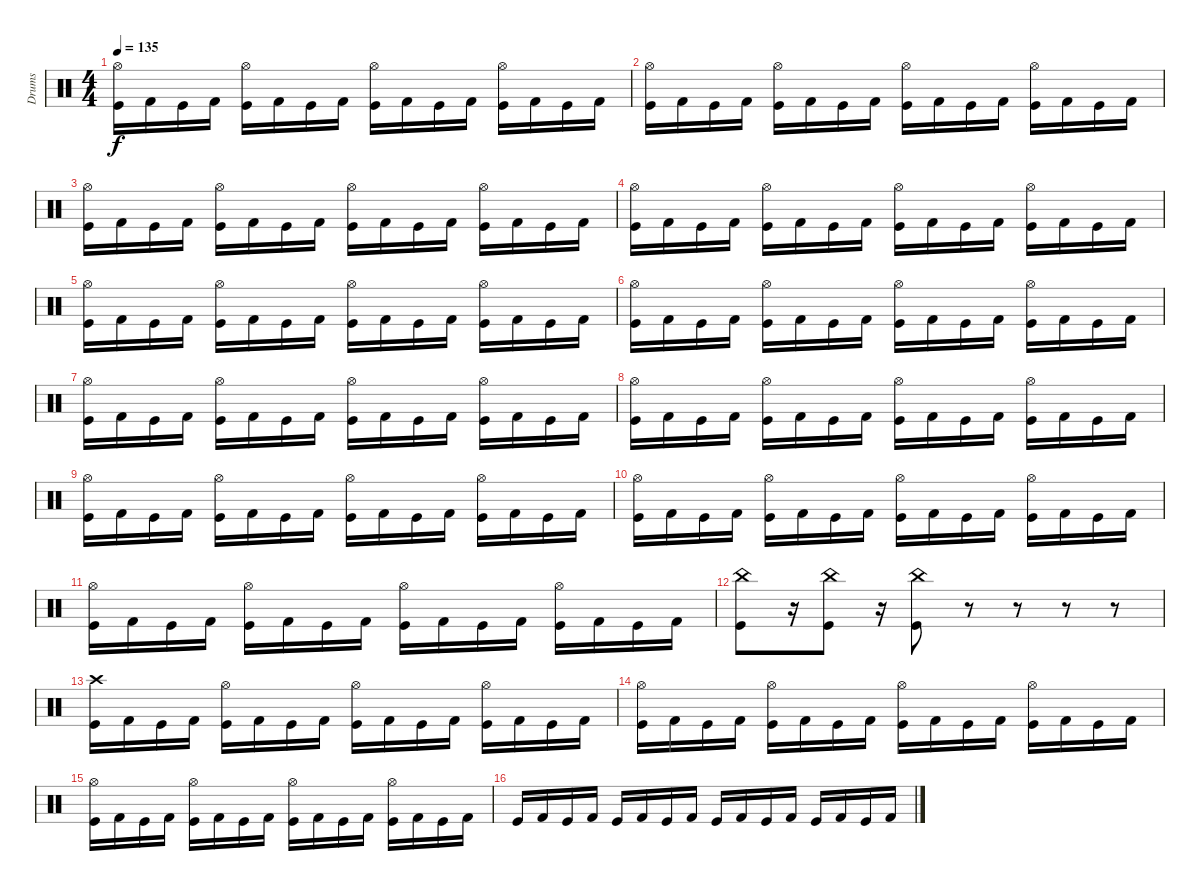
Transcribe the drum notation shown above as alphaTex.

\track ("Drums" "Drums") {instrument percussion}
\staff {score}
\articulation defaults
\ts (4 4)
\tempo 135
\clef neutral
\ks c
("Kick (hit)" "Hi-Hat (open)").16{dy f} "Kick (hit) 2".16 "Kick (hit)".16 "Kick (hit) 2".16 ("Kick (hit)" "Hi-Hat (open)").16 "Kick (hit) 2".16 "Kick (hit)".16 "Kick (hit) 2".16 ("Kick (hit)" "Hi-Hat (open)").16 "Kick (hit) 2".16 "Kick (hit)".16 "Kick (hit) 2".16 ("Kick (hit)" "Hi-Hat (open)").16 "Kick (hit) 2".16 "Kick (hit)".16 "Kick (hit) 2".16 |
("Kick (hit)" "Hi-Hat (open)").16 "Kick (hit) 2".16 "Kick (hit)".16 "Kick (hit) 2".16 ("Kick (hit)" "Hi-Hat (open)").16 "Kick (hit) 2".16 "Kick (hit)".16 "Kick (hit) 2".16 ("Kick (hit)" "Hi-Hat (open)").16 "Kick (hit) 2".16 "Kick (hit)".16 "Kick (hit) 2".16 ("Kick (hit)" "Hi-Hat (open)").16 "Kick (hit) 2".16 "Kick (hit)".16 "Kick (hit) 2".16 |
("Kick (hit)" "Hi-Hat (open)").16 "Kick (hit) 2".16 "Kick (hit)".16 "Kick (hit) 2".16 ("Kick (hit)" "Hi-Hat (open)").16 "Kick (hit) 2".16 "Kick (hit)".16 "Kick (hit) 2".16 ("Kick (hit)" "Hi-Hat (open)").16 "Kick (hit) 2".16 "Kick (hit)".16 "Kick (hit) 2".16 ("Kick (hit)" "Hi-Hat (open)").16 "Kick (hit) 2".16 "Kick (hit)".16 "Kick (hit) 2".16 |
("Kick (hit)" "Hi-Hat (open)").16 "Kick (hit) 2".16 "Kick (hit)".16 "Kick (hit) 2".16 ("Kick (hit)" "Hi-Hat (open)").16 "Kick (hit) 2".16 "Kick (hit)".16 "Kick (hit) 2".16 ("Kick (hit)" "Hi-Hat (open)").16 "Kick (hit) 2".16 "Kick (hit)".16 "Kick (hit) 2".16 ("Kick (hit)" "Hi-Hat (open)").16 "Kick (hit) 2".16 "Kick (hit)".16 "Kick (hit) 2".16 |
("Kick (hit)" "Hi-Hat (open)").16 "Kick (hit) 2".16 "Kick (hit)".16 "Kick (hit) 2".16 ("Kick (hit)" "Hi-Hat (open)").16 "Kick (hit) 2".16 "Kick (hit)".16 "Kick (hit) 2".16 ("Kick (hit)" "Hi-Hat (open)").16 "Kick (hit) 2".16 "Kick (hit)".16 "Kick (hit) 2".16 ("Kick (hit)" "Hi-Hat (open)").16 "Kick (hit) 2".16 "Kick (hit)".16 "Kick (hit) 2".16 |
("Kick (hit)" "Hi-Hat (open)").16 "Kick (hit) 2".16 "Kick (hit)".16 "Kick (hit) 2".16 ("Kick (hit)" "Hi-Hat (open)").16 "Kick (hit) 2".16 "Kick (hit)".16 "Kick (hit) 2".16 ("Kick (hit)" "Hi-Hat (open)").16 "Kick (hit) 2".16 "Kick (hit)".16 "Kick (hit) 2".16 ("Kick (hit)" "Hi-Hat (open)").16 "Kick (hit) 2".16 "Kick (hit)".16 "Kick (hit) 2".16 |
("Kick (hit)" "Hi-Hat (open)").16 "Kick (hit) 2".16 "Kick (hit)".16 "Kick (hit) 2".16 ("Kick (hit)" "Hi-Hat (open)").16 "Kick (hit) 2".16 "Kick (hit)".16 "Kick (hit) 2".16 ("Kick (hit)" "Hi-Hat (open)").16 "Kick (hit) 2".16 "Kick (hit)".16 "Kick (hit) 2".16 ("Kick (hit)" "Hi-Hat (open)").16 "Kick (hit) 2".16 "Kick (hit)".16 "Kick (hit) 2".16 |
("Kick (hit)" "Hi-Hat (open)").16 "Kick (hit) 2".16 "Kick (hit)".16 "Kick (hit) 2".16 ("Kick (hit)" "Hi-Hat (open)").16 "Kick (hit) 2".16 "Kick (hit)".16 "Kick (hit) 2".16 ("Kick (hit)" "Hi-Hat (open)").16 "Kick (hit) 2".16 "Kick (hit)".16 "Kick (hit) 2".16 ("Kick (hit)" "Hi-Hat (open)").16 "Kick (hit) 2".16 "Kick (hit)".16 "Kick (hit) 2".16 |
("Kick (hit)" "Hi-Hat (open)").16 "Kick (hit) 2".16 "Kick (hit)".16 "Kick (hit) 2".16 ("Kick (hit)" "Hi-Hat (open)").16 "Kick (hit) 2".16 "Kick (hit)".16 "Kick (hit) 2".16 ("Kick (hit)" "Hi-Hat (open)").16 "Kick (hit) 2".16 "Kick (hit)".16 "Kick (hit) 2".16 ("Kick (hit)" "Hi-Hat (open)").16 "Kick (hit) 2".16 "Kick (hit)".16 "Kick (hit) 2".16 |
("Kick (hit)" "Hi-Hat (open)").16 "Kick (hit) 2".16 "Kick (hit)".16 "Kick (hit) 2".16 ("Kick (hit)" "Hi-Hat (open)").16 "Kick (hit) 2".16 "Kick (hit)".16 "Kick (hit) 2".16 ("Kick (hit)" "Hi-Hat (open)").16 "Kick (hit) 2".16 "Kick (hit)".16 "Kick (hit) 2".16 ("Kick (hit)" "Hi-Hat (open)").16 "Kick (hit) 2".16 "Kick (hit)".16 "Kick (hit) 2".16 |
("Kick (hit)" "Hi-Hat (open)").16 "Kick (hit) 2".16 "Kick (hit)".16 "Kick (hit) 2".16 ("Kick (hit)" "Hi-Hat (open)").16 "Kick (hit) 2".16 "Kick (hit)".16 "Kick (hit) 2".16 ("Kick (hit)" "Hi-Hat (open)").16 "Kick (hit) 2".16 "Kick (hit)".16 "Kick (hit) 2".16 ("Kick (hit)" "Hi-Hat (open)").16 "Kick (hit) 2".16 "Kick (hit)".16 "Kick (hit) 2".16 |
("Kick (hit)" "China (hit)").8 r.16 ("Kick (hit)" "China (hit)").8 r.16 ("Kick (hit)" "China (hit)").8 r.8 r.8 r.8 r.8 |
("Kick (hit)" "Crash high (hit)").16 "Kick (hit) 2".16 "Kick (hit)".16 "Kick (hit) 2".16 ("Kick (hit)" "Hi-Hat (open)").16 "Kick (hit) 2".16 "Kick (hit)".16 "Kick (hit) 2".16 ("Kick (hit)" "Hi-Hat (open)").16 "Kick (hit) 2".16 "Kick (hit)".16 "Kick (hit) 2".16 ("Kick (hit)" "Hi-Hat (open)").16 "Kick (hit) 2".16 "Kick (hit)".16 "Kick (hit) 2".16 |
("Kick (hit)" "Hi-Hat (open)").16 "Kick (hit) 2".16 "Kick (hit)".16 "Kick (hit) 2".16 ("Kick (hit)" "Hi-Hat (open)").16 "Kick (hit) 2".16 "Kick (hit)".16 "Kick (hit) 2".16 ("Kick (hit)" "Hi-Hat (open)").16 "Kick (hit) 2".16 "Kick (hit)".16 "Kick (hit) 2".16 ("Kick (hit)" "Hi-Hat (open)").16 "Kick (hit) 2".16 "Kick (hit)".16 "Kick (hit) 2".16 |
("Kick (hit)" "Hi-Hat (open)").16 "Kick (hit) 2".16 "Kick (hit)".16 "Kick (hit) 2".16 ("Kick (hit)" "Hi-Hat (open)").16 "Kick (hit) 2".16 "Kick (hit)".16 "Kick (hit) 2".16 ("Kick (hit)" "Hi-Hat (open)").16 "Kick (hit) 2".16 "Kick (hit)".16 "Kick (hit) 2".16 ("Kick (hit)" "Hi-Hat (open)").16 "Kick (hit) 2".16 "Kick (hit)".16 "Kick (hit) 2".16 |
"Kick (hit)".16 "Kick (hit) 2".16 "Kick (hit)".16 "Kick (hit) 2".16 "Kick (hit)".16 "Kick (hit) 2".16 "Kick (hit)".16 "Kick (hit) 2".16 "Kick (hit)".16 "Kick (hit) 2".16 "Kick (hit)".16 "Kick (hit) 2".16 "Kick (hit)".16 "Kick (hit) 2".16 "Kick (hit)".16 "Kick (hit) 2".16
